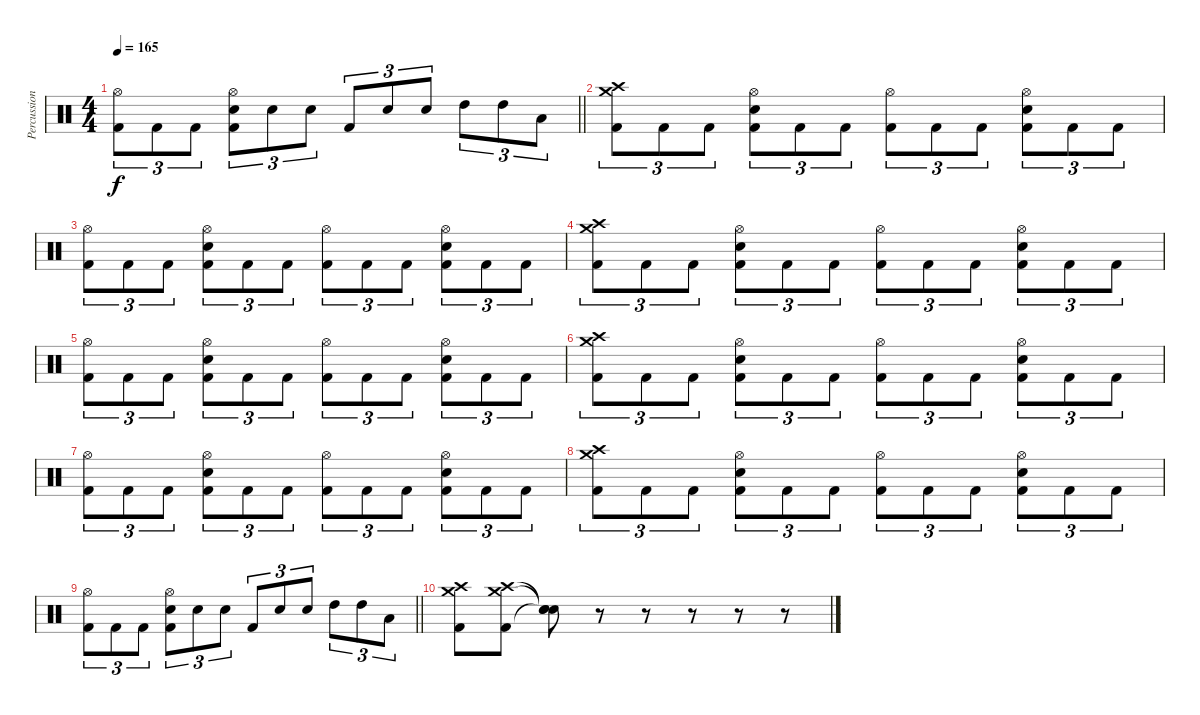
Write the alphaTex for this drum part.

\track ("Percussioni" "Percussion") {instrument percussion}
\staff {score}
\articulation defaults
\ts (4 4)
\tempo 165
\clef neutral
\barLineRight lightlight
\ks c
("Hi-Hat (open)" "Kick (hit) 2").8{tu (3 2) dy f} "Kick (hit) 2".8{tu (3 2)} "Kick (hit) 2".8{tu (3 2)} ("Hi-Hat (open)" "Electric Snare (hit)" "Kick (hit) 2").8{tu (3 2)} "Electric Snare (hit)".8{tu (3 2)} "Electric Snare (hit)".8{tu (3 2)} "Kick (hit) 2".8{tu (3 2)} "Electric Snare (hit)".8{tu (3 2)} "Electric Snare (hit)".8{tu (3 2)} "High Tom (hit)".8{tu (3 2)} "High Tom (hit)".8{tu (3 2)} "Low Tom (hit)".8{tu (3 2)} |
("Crash high (hit)" "Crash medium (hit)" "Kick (hit) 2").8{tu (3 2)} "Kick (hit) 2".8{tu (3 2)} "Kick (hit) 2".8{tu (3 2)} ("Hi-Hat (open)" "Electric Snare (hit)" "Kick (hit) 2").8{tu (3 2)} "Kick (hit) 2".8{tu (3 2)} "Kick (hit) 2".8{tu (3 2)} ("Hi-Hat (open)" "Kick (hit) 2").8{tu (3 2)} "Kick (hit) 2".8{tu (3 2)} "Kick (hit) 2".8{tu (3 2)} ("Hi-Hat (open)" "Electric Snare (hit)" "Kick (hit) 2").8{tu (3 2)} "Kick (hit) 2".8{tu (3 2)} "Kick (hit) 2".8{tu (3 2)} |
("Hi-Hat (open)" "Kick (hit) 2").8{tu (3 2)} "Kick (hit) 2".8{tu (3 2)} "Kick (hit) 2".8{tu (3 2)} ("Hi-Hat (open)" "Electric Snare (hit)" "Kick (hit) 2").8{tu (3 2)} "Kick (hit) 2".8{tu (3 2)} "Kick (hit) 2".8{tu (3 2)} ("Hi-Hat (open)" "Kick (hit) 2").8{tu (3 2)} "Kick (hit) 2".8{tu (3 2)} "Kick (hit) 2".8{tu (3 2)} ("Hi-Hat (open)" "Electric Snare (hit)" "Kick (hit) 2").8{tu (3 2)} "Kick (hit) 2".8{tu (3 2)} "Kick (hit) 2".8{tu (3 2)} |
("Crash high (hit)" "Crash medium (hit)" "Kick (hit) 2").8{tu (3 2)} "Kick (hit) 2".8{tu (3 2)} "Kick (hit) 2".8{tu (3 2)} ("Hi-Hat (open)" "Electric Snare (hit)" "Kick (hit) 2").8{tu (3 2)} "Kick (hit) 2".8{tu (3 2)} "Kick (hit) 2".8{tu (3 2)} ("Hi-Hat (open)" "Kick (hit) 2").8{tu (3 2)} "Kick (hit) 2".8{tu (3 2)} "Kick (hit) 2".8{tu (3 2)} ("Hi-Hat (open)" "Electric Snare (hit)" "Kick (hit) 2").8{tu (3 2)} "Kick (hit) 2".8{tu (3 2)} "Kick (hit) 2".8{tu (3 2)} |
("Hi-Hat (open)" "Kick (hit) 2").8{tu (3 2)} "Kick (hit) 2".8{tu (3 2)} "Kick (hit) 2".8{tu (3 2)} ("Hi-Hat (open)" "Electric Snare (hit)" "Kick (hit) 2").8{tu (3 2)} "Kick (hit) 2".8{tu (3 2)} "Kick (hit) 2".8{tu (3 2)} ("Hi-Hat (open)" "Kick (hit) 2").8{tu (3 2)} "Kick (hit) 2".8{tu (3 2)} "Kick (hit) 2".8{tu (3 2)} ("Hi-Hat (open)" "Electric Snare (hit)" "Kick (hit) 2").8{tu (3 2)} "Kick (hit) 2".8{tu (3 2)} "Kick (hit) 2".8{tu (3 2)} |
("Crash high (hit)" "Crash medium (hit)" "Kick (hit) 2").8{tu (3 2)} "Kick (hit) 2".8{tu (3 2)} "Kick (hit) 2".8{tu (3 2)} ("Hi-Hat (open)" "Electric Snare (hit)" "Kick (hit) 2").8{tu (3 2)} "Kick (hit) 2".8{tu (3 2)} "Kick (hit) 2".8{tu (3 2)} ("Hi-Hat (open)" "Kick (hit) 2").8{tu (3 2)} "Kick (hit) 2".8{tu (3 2)} "Kick (hit) 2".8{tu (3 2)} ("Hi-Hat (open)" "Electric Snare (hit)" "Kick (hit) 2").8{tu (3 2)} "Kick (hit) 2".8{tu (3 2)} "Kick (hit) 2".8{tu (3 2)} |
("Hi-Hat (open)" "Kick (hit) 2").8{tu (3 2)} "Kick (hit) 2".8{tu (3 2)} "Kick (hit) 2".8{tu (3 2)} ("Hi-Hat (open)" "Electric Snare (hit)" "Kick (hit) 2").8{tu (3 2)} "Kick (hit) 2".8{tu (3 2)} "Kick (hit) 2".8{tu (3 2)} ("Hi-Hat (open)" "Kick (hit) 2").8{tu (3 2)} "Kick (hit) 2".8{tu (3 2)} "Kick (hit) 2".8{tu (3 2)} ("Hi-Hat (open)" "Electric Snare (hit)" "Kick (hit) 2").8{tu (3 2)} "Kick (hit) 2".8{tu (3 2)} "Kick (hit) 2".8{tu (3 2)} |
("Crash high (hit)" "Crash medium (hit)" "Kick (hit) 2").8{tu (3 2)} "Kick (hit) 2".8{tu (3 2)} "Kick (hit) 2".8{tu (3 2)} ("Hi-Hat (open)" "Electric Snare (hit)" "Kick (hit) 2").8{tu (3 2)} "Kick (hit) 2".8{tu (3 2)} "Kick (hit) 2".8{tu (3 2)} ("Hi-Hat (open)" "Kick (hit) 2").8{tu (3 2)} "Kick (hit) 2".8{tu (3 2)} "Kick (hit) 2".8{tu (3 2)} ("Hi-Hat (open)" "Electric Snare (hit)" "Kick (hit) 2").8{tu (3 2)} "Kick (hit) 2".8{tu (3 2)} "Kick (hit) 2".8{tu (3 2)} |
\barLineRight lightlight
("Hi-Hat (open)" "Kick (hit) 2").8{tu (3 2)} "Kick (hit) 2".8{tu (3 2)} "Kick (hit) 2".8{tu (3 2)} ("Hi-Hat (open)" "Electric Snare (hit)" "Kick (hit) 2").8{tu (3 2)} "Electric Snare (hit)".8{tu (3 2)} "Electric Snare (hit)".8{tu (3 2)} "Kick (hit) 2".8{tu (3 2)} "Electric Snare (hit)".8{tu (3 2)} "Electric Snare (hit)".8{tu (3 2)} "High Tom (hit)".8{tu (3 2)} "High Tom (hit)".8{tu (3 2)} "Low Tom (hit)".8{tu (3 2)} |
("Crash high (hit)" "Crash medium (hit)" "Kick (hit) 2").8 ("Crash high (hit)" "Crash medium (hit)" "Kick (hit) 2").8 ("Snare (hit)"{t} "Snare (hit)"{t} "Snare (hit)"{t}).8 r.8 r.8 r.8 r.8 r.8
